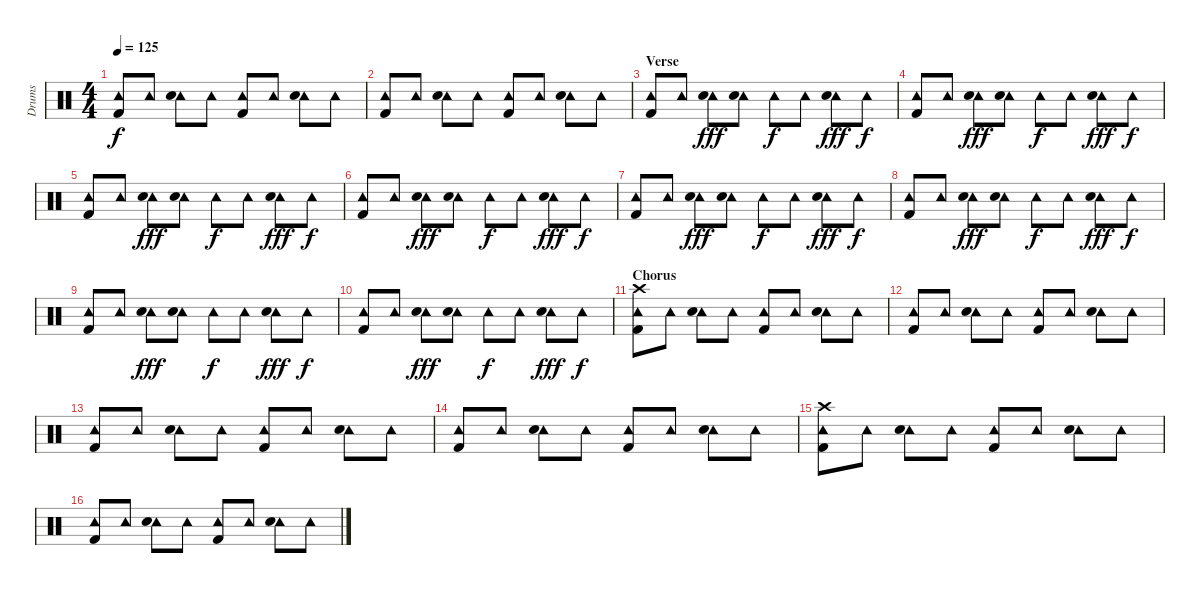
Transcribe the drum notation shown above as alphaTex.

\track ("Drums" "Drums") {instrument percussion}
\staff {score}
\articulation defaults
\ts (4 4)
\tempo 125
\clef neutral
\ks c
("Tambourine (hit)" "Kick (hit) 2").8{dy f} "Tambourine (hit)".8 ("Tambourine (hit)" "Electric Snare (hit)").8 "Tambourine (hit)".8 ("Tambourine (hit)" "Kick (hit) 2").8 "Tambourine (hit)".8 ("Tambourine (hit)" "Electric Snare (hit)").8 "Tambourine (hit)".8 |
("Tambourine (hit)" "Kick (hit) 2").8 "Tambourine (hit)".8 ("Tambourine (hit)" "Electric Snare (hit)").8 "Tambourine (hit)".8 ("Tambourine (hit)" "Kick (hit) 2").8 "Tambourine (hit)".8 ("Tambourine (hit)" "Electric Snare (hit)").8 "Tambourine (hit)".8 |
\section ("" "Verse")
("Tambourine (hit)" "Kick (hit) 2").8 "Tambourine (hit)".8 ("Tambourine (hit)" "Electric Snare (hit)").8{dy fff} ("Tambourine (hit)" "Electric Snare (hit)").8 "Tambourine (hit)".8{dy f} "Tambourine (hit)".8 ("Tambourine (hit)" "Electric Snare (hit)").8{dy fff} "Tambourine (hit)".8{dy f} |
("Tambourine (hit)" "Kick (hit) 2").8 "Tambourine (hit)".8 ("Tambourine (hit)" "Electric Snare (hit)").8{dy fff} ("Tambourine (hit)" "Electric Snare (hit)").8 "Tambourine (hit)".8{dy f} "Tambourine (hit)".8 ("Tambourine (hit)" "Electric Snare (hit)").8{dy fff} "Tambourine (hit)".8{dy f} |
("Tambourine (hit)" "Kick (hit) 2").8 "Tambourine (hit)".8 ("Tambourine (hit)" "Electric Snare (hit)").8{dy fff} ("Tambourine (hit)" "Electric Snare (hit)").8 "Tambourine (hit)".8{dy f} "Tambourine (hit)".8 ("Tambourine (hit)" "Electric Snare (hit)").8{dy fff} "Tambourine (hit)".8{dy f} |
("Tambourine (hit)" "Kick (hit) 2").8 "Tambourine (hit)".8 ("Tambourine (hit)" "Electric Snare (hit)").8{dy fff} ("Tambourine (hit)" "Electric Snare (hit)").8 "Tambourine (hit)".8{dy f} "Tambourine (hit)".8 ("Tambourine (hit)" "Electric Snare (hit)").8{dy fff} "Tambourine (hit)".8{dy f} |
("Tambourine (hit)" "Kick (hit) 2").8 "Tambourine (hit)".8 ("Tambourine (hit)" "Electric Snare (hit)").8{dy fff} ("Tambourine (hit)" "Electric Snare (hit)").8 "Tambourine (hit)".8{dy f} "Tambourine (hit)".8 ("Tambourine (hit)" "Electric Snare (hit)").8{dy fff} "Tambourine (hit)".8{dy f} |
("Tambourine (hit)" "Kick (hit) 2").8 "Tambourine (hit)".8 ("Tambourine (hit)" "Electric Snare (hit)").8{dy fff} ("Tambourine (hit)" "Electric Snare (hit)").8 "Tambourine (hit)".8{dy f} "Tambourine (hit)".8 ("Tambourine (hit)" "Electric Snare (hit)").8{dy fff} "Tambourine (hit)".8{dy f} |
("Tambourine (hit)" "Kick (hit) 2").8 "Tambourine (hit)".8 ("Tambourine (hit)" "Electric Snare (hit)").8{dy fff} ("Tambourine (hit)" "Electric Snare (hit)").8 "Tambourine (hit)".8{dy f} "Tambourine (hit)".8 ("Tambourine (hit)" "Electric Snare (hit)").8{dy fff} "Tambourine (hit)".8{dy f} |
("Tambourine (hit)" "Kick (hit) 2").8 "Tambourine (hit)".8 ("Tambourine (hit)" "Electric Snare (hit)").8{dy fff} ("Tambourine (hit)" "Electric Snare (hit)").8 "Tambourine (hit)".8{dy f} "Tambourine (hit)".8 ("Tambourine (hit)" "Electric Snare (hit)").8{dy fff} "Tambourine (hit)".8{dy f} |
\section ("" "Chorus")
("Crash high (hit)" "Tambourine (hit)" "Kick (hit) 2").8 "Tambourine (hit)".8 ("Tambourine (hit)" "Electric Snare (hit)").8 "Tambourine (hit)".8 ("Tambourine (hit)" "Kick (hit) 2").8 "Tambourine (hit)".8 ("Tambourine (hit)" "Electric Snare (hit)").8 "Tambourine (hit)".8 |
("Tambourine (hit)" "Kick (hit) 2").8 "Tambourine (hit)".8 ("Tambourine (hit)" "Electric Snare (hit)").8 "Tambourine (hit)".8 ("Tambourine (hit)" "Kick (hit) 2").8 "Tambourine (hit)".8 ("Tambourine (hit)" "Electric Snare (hit)").8 "Tambourine (hit)".8 |
("Tambourine (hit)" "Kick (hit) 2").8 "Tambourine (hit)".8 ("Tambourine (hit)" "Electric Snare (hit)").8 "Tambourine (hit)".8 ("Tambourine (hit)" "Kick (hit) 2").8 "Tambourine (hit)".8 ("Tambourine (hit)" "Electric Snare (hit)").8 "Tambourine (hit)".8 |
("Tambourine (hit)" "Kick (hit) 2").8 "Tambourine (hit)".8 ("Tambourine (hit)" "Electric Snare (hit)").8 "Tambourine (hit)".8 ("Tambourine (hit)" "Kick (hit) 2").8 "Tambourine (hit)".8 ("Tambourine (hit)" "Electric Snare (hit)").8 "Tambourine (hit)".8 |
("Crash high (hit)" "Tambourine (hit)" "Kick (hit) 2").8 "Tambourine (hit)".8 ("Tambourine (hit)" "Electric Snare (hit)").8 "Tambourine (hit)".8 ("Tambourine (hit)" "Kick (hit) 2").8 "Tambourine (hit)".8 ("Tambourine (hit)" "Electric Snare (hit)").8 "Tambourine (hit)".8 |
("Tambourine (hit)" "Kick (hit) 2").8 "Tambourine (hit)".8 ("Tambourine (hit)" "Electric Snare (hit)").8 "Tambourine (hit)".8 ("Tambourine (hit)" "Kick (hit) 2").8 "Tambourine (hit)".8 ("Tambourine (hit)" "Electric Snare (hit)").8 "Tambourine (hit)".8
